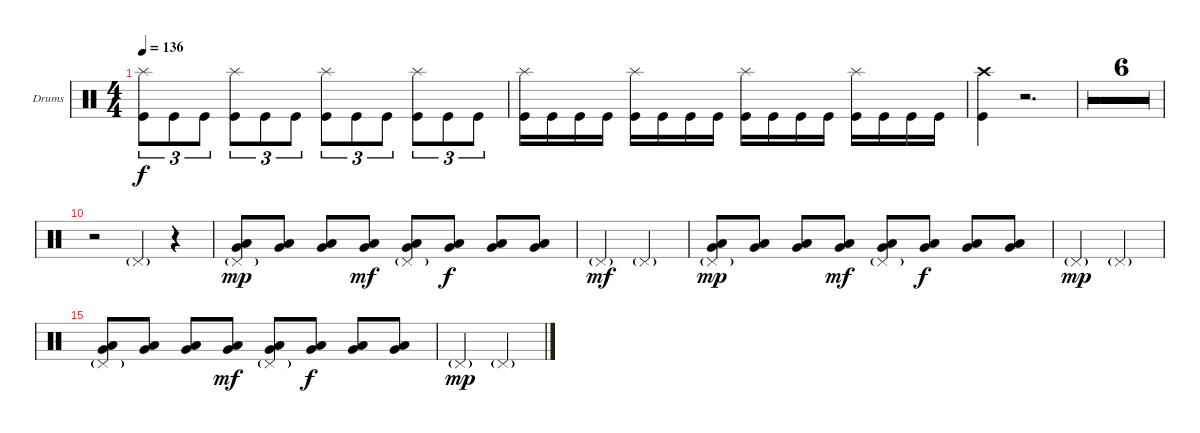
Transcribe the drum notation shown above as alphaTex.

\defaultSystemsLayout 4
\bracketExtendMode groupsimilarinstruments
\firstSystemTrackNameOrientation horizontal
\otherSystemsTrackNameOrientation horizontal
\defaultBarNumberDisplay FirstOfSystem
\track ("Drumkit" "Drums") {multiBarRest instrument percussion}
\staff {score}
\articulation defaults
\ts (4 4)
\tempo 136
\clef neutral
\ks c
("Kick (hit)" "Splash (hit)").8{tu (3 2) dy f} "Kick (hit)".8{tu (3 2)} "Kick (hit)".8{tu (3 2)} ("Kick (hit)" "Splash (hit)").8{tu (3 2)} "Kick (hit)".8{tu (3 2)} "Kick (hit)".8{tu (3 2)} ("Kick (hit)" "Splash (hit)").8{tu (3 2)} "Kick (hit)".8{tu (3 2)} "Kick (hit)".8{tu (3 2)} ("Kick (hit)" "Splash (hit)").8{tu (3 2)} "Kick (hit)".8{tu (3 2)} "Kick (hit)".8{tu (3 2)} |
("Kick (hit)" "Splash (hit)").16 "Kick (hit)".16 "Kick (hit)".16 "Kick (hit)".16 ("Kick (hit)" "Splash (hit)").16 "Kick (hit)".16 "Kick (hit)".16 "Kick (hit)".16 ("Kick (hit)" "Splash (hit)").16 "Kick (hit)".16 "Kick (hit)".16 "Kick (hit)".16 ("Kick (hit)" "Splash (hit)").16 "Kick (hit)".16 "Kick (hit)".16 "Kick (hit)".16 |
("Kick (hit)" "Crash high (hit)").4 r.2{d} |
r.1 |
r.1 |
r.1 |
r.1 |
r.1 |
r.1 |
r.2 "Pedal Hi-Hat (hit)"{g}.4 r.4 |
("Pedal Hi-Hat (hit)"{g} "Very Low Tom (hit)" "Low Tom (hit)").8{dy mp} ("Low Tom (hit)" "Very Low Tom (hit)").8 ("Low Tom (hit)" "Very Low Tom (hit)").8 ("Low Tom (hit)" "Very Low Tom (hit)").8{dy mf} ("Low Tom (hit)" "Very Low Tom (hit)" "Pedal Hi-Hat (hit)"{g}).8 ("Low Tom (hit)" "Very Low Tom (hit)").8{dy f} ("Low Tom (hit)" "Very Low Tom (hit)").8 ("Low Tom (hit)" "Very Low Tom (hit)").8 |
"Pedal Hi-Hat (hit)"{g}.2{dy mf} "Pedal Hi-Hat (hit)"{g}.2 |
("Pedal Hi-Hat (hit)"{g} "Very Low Tom (hit)" "Low Tom (hit)").8{dy mp} ("Low Tom (hit)" "Very Low Tom (hit)").8 ("Low Tom (hit)" "Very Low Tom (hit)").8 ("Low Tom (hit)" "Very Low Tom (hit)").8{dy mf} ("Low Tom (hit)" "Very Low Tom (hit)" "Pedal Hi-Hat (hit)"{g}).8 ("Low Tom (hit)" "Very Low Tom (hit)").8{dy f} ("Low Tom (hit)" "Very Low Tom (hit)").8 ("Low Tom (hit)" "Very Low Tom (hit)").8 |
"Pedal Hi-Hat (hit)"{g}.2{dy mp} "Pedal Hi-Hat (hit)"{g}.2 |
("Pedal Hi-Hat (hit)"{g} "Very Low Tom (hit)" "Low Tom (hit)").8 ("Low Tom (hit)" "Very Low Tom (hit)").8 ("Low Tom (hit)" "Very Low Tom (hit)").8 ("Low Tom (hit)" "Very Low Tom (hit)").8{dy mf} ("Low Tom (hit)" "Very Low Tom (hit)" "Pedal Hi-Hat (hit)"{g}).8 ("Low Tom (hit)" "Very Low Tom (hit)").8{dy f} ("Low Tom (hit)" "Very Low Tom (hit)").8 ("Low Tom (hit)" "Very Low Tom (hit)").8 |
"Pedal Hi-Hat (hit)"{g}.2{dy mp} "Pedal Hi-Hat (hit)"{g}.2
